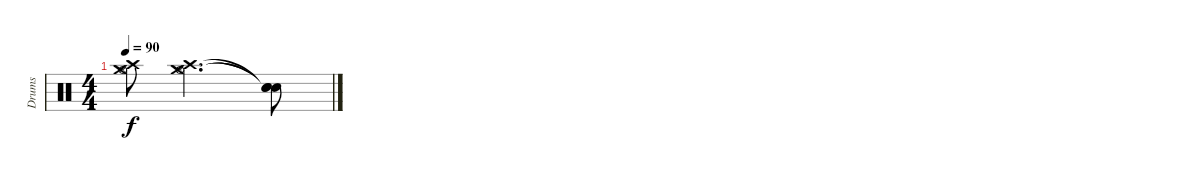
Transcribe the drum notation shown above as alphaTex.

\track ("Drums" "Drums") {instrument percussion}
\staff {score}
\articulation defaults
\ts (4 4)
\tempo 90
\clef neutral
\ks c
("Hi-Hat (open)" "Crash medium (hit)" "Crash high (hit)").8{dy f} ("Hi-Hat (open)" "Crash medium (hit)" "Crash high (hit)").2{d} ("Snare (hit)"{t} "Snare (hit)"{t} "Snare (hit)"{t}).8
